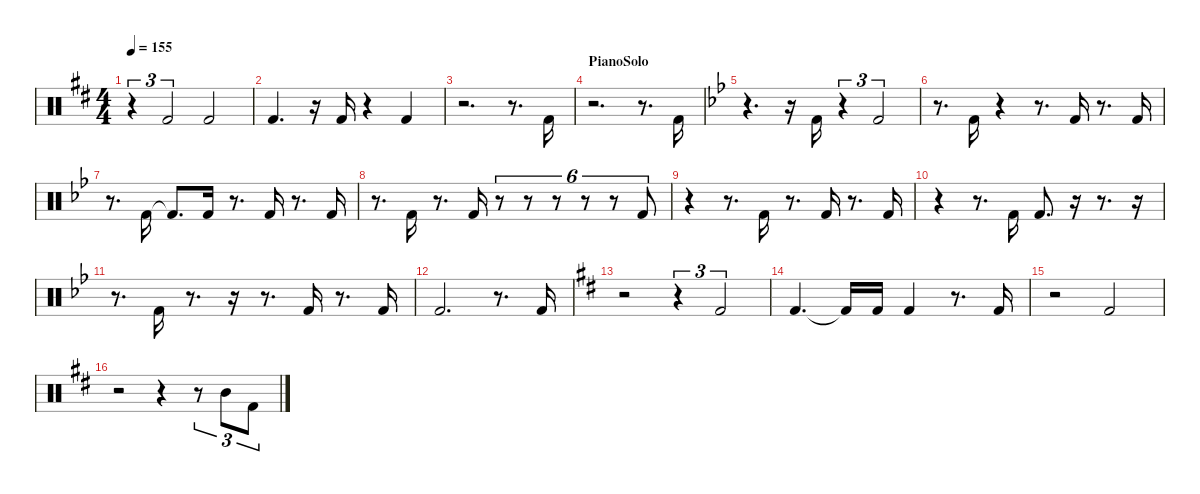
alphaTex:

\hideDynamics
\bracketExtendMode nobrackets
\singleTrackTrackNamePolicy hidden
\multiTrackTrackNamePolicy hidden
\otherSystemsTrackNameOrientation horizontal
\track ("Kick" "Drums") {instrument percussion}
\staff {score}
\articulation defaults
\ts (4 4)
\tempo 155
\clef neutral
\ks d
r.4{tu (3 2) dy mp beam Down} "Kick (hit) 2"{acc forcenatural}.2{tu (3 2) dy mf beam Up} "Kick (hit) 2"{acc forcenatural}.2{beam Up} |
"Kick (hit) 2"{acc forcenatural}.4{d beam Up} r.16{beam Up} "Kick (hit) 2"{acc forcenatural}.16{beam Up} r.4{beam Up} "Kick (hit) 2"{acc forcenatural}.4{beam Up} |
r.2{d beam Down} r.8{d beam Down} "Kick (hit) 2"{acc forcenatural}.16{beam Up} |
\section ("" "PianoSolo")
r.2{d beam Down} r.8{d beam Down} "Kick (hit) 2"{acc forcenatural}.16{beam Up} |
\ks bb
r.4{d beam Down} r.16{beam Down} "Kick (hit) 2"{acc forcenatural}.16{beam Up} r.4{tu (3 2) beam Up} "Kick (hit) 2"{acc forcenatural}.2{tu (3 2) beam Up} |
r.8{d beam Down} "Kick (hit) 2"{acc forcenatural}.16{beam Up} r.4{beam Up} r.8{d beam Up} "Kick (hit) 2"{acc forcenatural}.16{dy mp beam Up} r.8{d beam Up} "Kick (hit) 2"{acc forcenatural}.16{beam Up} |
r.8{d beam Down} "Kick (hit) 2"{acc forcenatural}.16{dy mf beam Up} "Kick (hit) 2"{t acc forcenatural}.8{d beam Up} "Kick (hit) 2"{acc forcenatural}.16{dy mp beam Up} r.8{d beam Up} "Kick (hit) 2"{acc forcenatural}.16{beam Up} r.8{d beam Up} "Kick (hit) 2"{acc forcenatural}.16{beam Up} |
r.8{d beam Down} "Kick (hit) 2"{acc forcenatural}.16{dy mf beam Up} r.8{d beam Up} "Kick (hit) 2"{acc forcenatural}.16{beam Up} r.8{tu (6 4) beam Up} r.8{tu (6 4) beam Up} r.8{tu (6 4) beam Up} r.8{tu (6 4) beam Up} r.8{tu (6 4) beam Up} "Kick (hit) 2"{acc forcenatural}.8{tu (6 4) beam Up} |
r.4{beam Down} r.8{d beam Down} "Kick (hit) 2"{acc forcenatural}.16{beam Up} r.8{d beam Up} "Kick (hit) 2"{acc forcenatural}.16{beam Up} r.8{d beam Up} "Kick (hit) 2"{acc forcenatural}.16{beam Up} |
r.4{beam Down} r.8{d beam Down} "Kick (hit) 2"{acc forcenatural}.16{beam Up} "Kick (hit) 2"{acc forcenatural}.8{d beam Up} r.16{beam Up} r.8{d beam Up} r.16{beam Up} |
r.8{d beam Down} "Kick (hit) 2"{acc forcenatural}.16{beam Up} r.8{d beam Up} r.16{beam Up} r.8{d beam Up} "Kick (hit) 2"{acc forcenatural}.16{dy mp beam Up} r.8{d beam Up} "Kick (hit) 2"{acc forcenatural}.16{beam Up} |
"Kick (hit) 2"{acc forcenatural}.2{d dy mf beam Up} r.8{d beam Up} "Kick (hit) 2"{acc forcenatural}.16{beam Up} |
\ks d
r.2{beam Down} r.4{tu (3 2) beam Down} "Kick (hit) 2"{acc forcenatural}.2{tu (3 2) beam Up} |
"Kick (hit) 2"{acc forcenatural}.4{d beam Up} "Kick (hit) 2"{t acc forcenatural}.16{beam Up} "Kick (hit) 2"{acc forcenatural}.16{beam Up} "Kick (hit) 2"{acc forcenatural}.4{beam Up} r.8{d beam Up} "Kick (hit) 2"{acc forcenatural}.16{beam Up} |
r.2{beam Down} "Kick (hit) 2"{acc forcenatural}.2{beam Up} |
r.2{beam Down} r.4{beam Down} r.8{tu (3 2) beam Down} "Mid Tom (hit)"{acc forcenatural}.8{tu (3 2) dy mp beam Up} "Kick (hit) 2"{acc forcenatural}.8{tu (3 2) beam Up}
